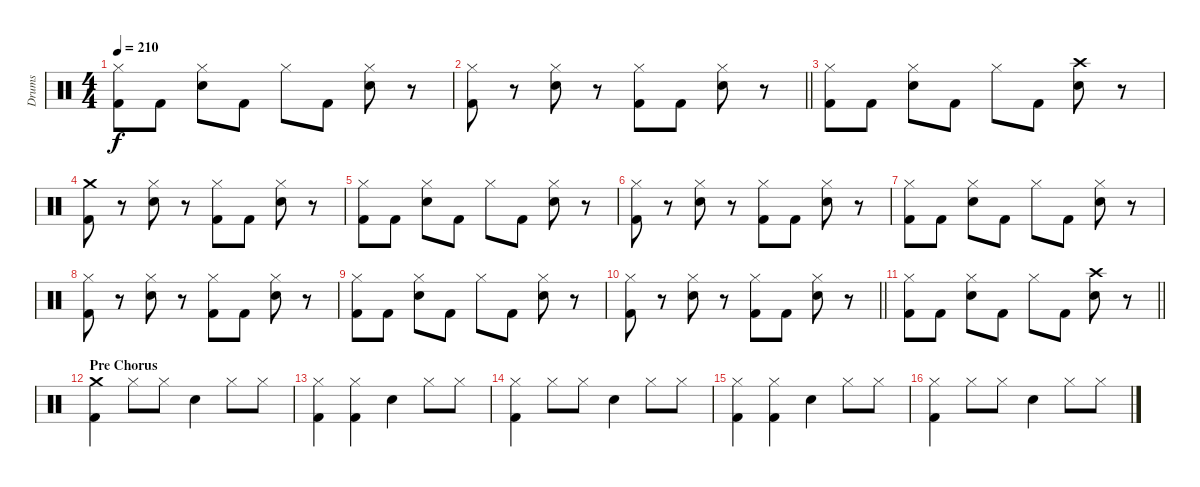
\track ("Drums" "Drums") {instrument percussion}
\staff {score}
\articulation defaults
\ts (4 4)
\tempo 210
\clef neutral
\ks c
("Hi-Hat (closed)" "Kick (hit) 2").8{dy f} "Kick (hit) 2".8 ("Hi-Hat (closed)" "Electric Snare (hit)").8 "Kick (hit) 2".8 "Hi-Hat (closed)".8 "Kick (hit) 2".8 ("Hi-Hat (closed)" "Electric Snare (hit)").8 r.8 |
\barLineRight lightlight
("Hi-Hat (closed)" "Kick (hit) 2").8 r.8 ("Hi-Hat (closed)" "Electric Snare (hit)").8 r.8 ("Hi-Hat (closed)" "Kick (hit) 2").8 "Kick (hit) 2".8 ("Hi-Hat (closed)" "Electric Snare (hit)").8 r.8 |
("Hi-Hat (closed)" "Kick (hit) 2").8 "Kick (hit) 2".8 ("Hi-Hat (closed)" "Electric Snare (hit)").8 "Kick (hit) 2".8 "Hi-Hat (closed)".8 "Kick (hit) 2".8 ("Crash high (hit)" "Electric Snare (hit)").8 r.8 |
("Crash medium (hit)" "Kick (hit) 2").8 r.8 ("Hi-Hat (closed)" "Electric Snare (hit)").8 r.8 ("Hi-Hat (closed)" "Kick (hit) 2").8 "Kick (hit) 2".8 ("Hi-Hat (closed)" "Electric Snare (hit)").8 r.8 |
("Hi-Hat (closed)" "Kick (hit) 2").8 "Kick (hit) 2".8 ("Hi-Hat (closed)" "Electric Snare (hit)").8 "Kick (hit) 2".8 "Hi-Hat (closed)".8 "Kick (hit) 2".8 ("Hi-Hat (closed)" "Electric Snare (hit)").8 r.8 |
("Hi-Hat (closed)" "Kick (hit) 2").8 r.8 ("Hi-Hat (closed)" "Electric Snare (hit)").8 r.8 ("Hi-Hat (closed)" "Kick (hit) 2").8 "Kick (hit) 2".8 ("Hi-Hat (closed)" "Electric Snare (hit)").8 r.8 |
("Hi-Hat (closed)" "Kick (hit) 2").8 "Kick (hit) 2".8 ("Hi-Hat (closed)" "Electric Snare (hit)").8 "Kick (hit) 2".8 "Hi-Hat (closed)".8 "Kick (hit) 2".8 ("Hi-Hat (closed)" "Electric Snare (hit)").8 r.8 |
("Hi-Hat (closed)" "Kick (hit) 2").8 r.8 ("Hi-Hat (closed)" "Electric Snare (hit)").8 r.8 ("Hi-Hat (closed)" "Kick (hit) 2").8 "Kick (hit) 2".8 ("Hi-Hat (closed)" "Electric Snare (hit)").8 r.8 |
("Hi-Hat (closed)" "Kick (hit) 2").8 "Kick (hit) 2".8 ("Hi-Hat (closed)" "Electric Snare (hit)").8 "Kick (hit) 2".8 "Hi-Hat (closed)".8 "Kick (hit) 2".8 ("Hi-Hat (closed)" "Electric Snare (hit)").8 r.8 |
\barLineRight lightlight
("Hi-Hat (closed)" "Kick (hit) 2").8 r.8 ("Hi-Hat (closed)" "Electric Snare (hit)").8 r.8 ("Hi-Hat (closed)" "Kick (hit) 2").8 "Kick (hit) 2".8 ("Hi-Hat (closed)" "Electric Snare (hit)").8 r.8 |
\barLineRight lightlight
("Hi-Hat (closed)" "Kick (hit) 2").8 "Kick (hit) 2".8 ("Hi-Hat (closed)" "Electric Snare (hit)").8 "Kick (hit) 2".8 "Hi-Hat (closed)".8 "Kick (hit) 2".8 ("Crash high (hit)" "Electric Snare (hit)").8 r.8 |
\section ("" "Pre Chorus")
("Crash medium (hit)" "Kick (hit) 2").4 "Hi-Hat (closed)".8 "Hi-Hat (closed)".8 "Electric Snare (hit)".4 "Hi-Hat (closed)".8 "Hi-Hat (closed)".8 |
("Hi-Hat (closed)" "Kick (hit) 2").4 ("Hi-Hat (closed)" "Kick (hit) 2").4 "Electric Snare (hit)".4 "Hi-Hat (closed)".8 "Hi-Hat (closed)".8 |
("Hi-Hat (closed)" "Kick (hit) 2").4 "Hi-Hat (closed)".8 "Hi-Hat (closed)".8 "Electric Snare (hit)".4 "Hi-Hat (closed)".8 "Hi-Hat (closed)".8 |
("Hi-Hat (closed)" "Kick (hit) 2").4 ("Hi-Hat (closed)" "Kick (hit) 2").4 "Electric Snare (hit)".4 "Hi-Hat (closed)".8 "Hi-Hat (closed)".8 |
("Hi-Hat (closed)" "Kick (hit) 2").4 "Hi-Hat (closed)".8 "Hi-Hat (closed)".8 "Electric Snare (hit)".4 "Hi-Hat (closed)".8 "Hi-Hat (closed)".8
